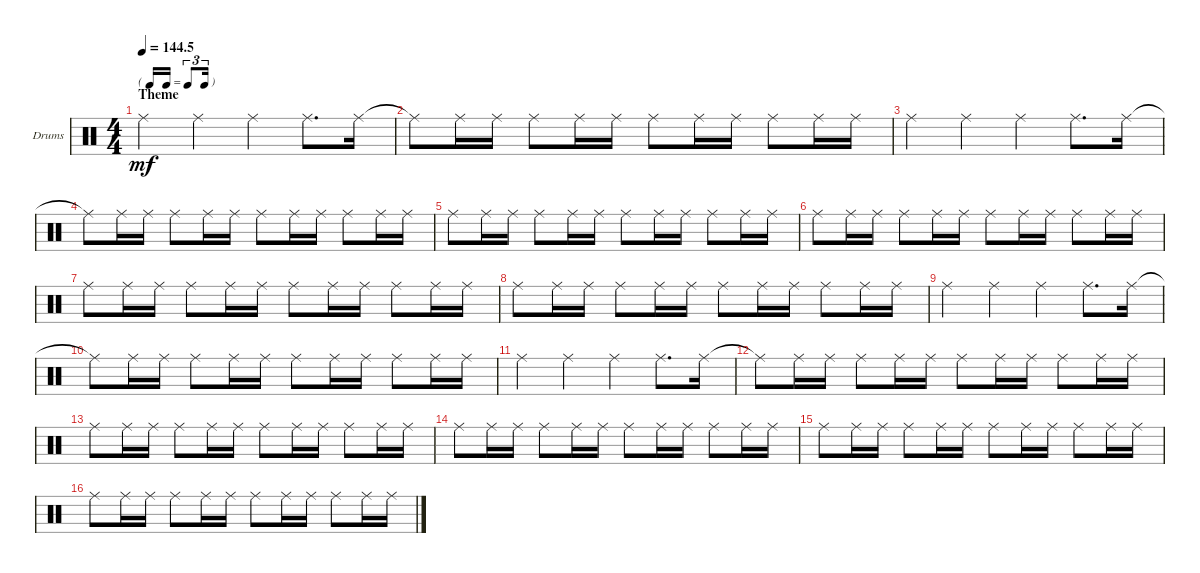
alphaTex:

\defaultSystemsLayout 4
\bracketExtendMode groupsimilarinstruments
\firstSystemTrackNameOrientation horizontal
\otherSystemsTrackNameOrientation horizontal
\track ("Drumkit" "Drums") {instrument percussion}
\staff {score}
\articulation defaults
\ts (4 4)
\tf triplet16th
\section ("" "Theme")
\tempo
144.5
\accidentals auto
\clef neutral
\ottava regular
\simile none
\scale
0.641509
\ks c "Ride (middle)".4{dy mf} "Ride (middle)".4 "Ride (middle)".4 "Ride (middle)".8{d} "Ride (middle)".16
|
\scale
0.358491 "Ride (middle)"{t}.8 "Ride (middle)".16 "Ride (middle)".16 "Ride (middle)".8 "Ride (middle)".16 "Ride (middle)".16 "Ride (middle)".8 "Ride (middle)".16 "Ride (middle)".16 "Ride (middle)".8 "Ride (middle)".16 "Ride (middle)".16 |
\scale
0.5 "Ride (middle)".4 "Ride (middle)".4 "Ride (middle)".4 "Ride (middle)".8{d} "Ride (middle)".16 |
\scale
0.5 "Ride (middle)"{t}.8 "Ride (middle)".16 "Ride (middle)".16 "Ride (middle)".8 "Ride (middle)".16 "Ride (middle)".16 "Ride (middle)".8 "Ride (middle)".16 "Ride (middle)".16 "Ride (middle)".8 "Ride (middle)".16 "Ride (middle)".16 |
\scale
0.5 "Ride (middle)".8 "Ride (middle)".16 "Ride (middle)".16 "Ride (middle)".8 "Ride (middle)".16 "Ride (middle)".16 "Ride (middle)".8 "Ride (middle)".16 "Ride (middle)".16 "Ride (middle)".8 "Ride (middle)".16 "Ride (middle)".16 |
\scale
0.5 "Ride (middle)".8 "Ride (middle)".16 "Ride (middle)".16 "Ride (middle)".8 "Ride (middle)".16 "Ride (middle)".16 "Ride (middle)".8 "Ride (middle)".16 "Ride (middle)".16 "Ride (middle)".8 "Ride (middle)".16 "Ride (middle)".16 |
\scale
0.5 "Ride (middle)".8 "Ride (middle)".16 "Ride (middle)".16 "Ride (middle)".8 "Ride (middle)".16 "Ride (middle)".16 "Ride (middle)".8 "Ride (middle)".16 "Ride (middle)".16 "Ride (middle)".8 "Ride (middle)".16 "Ride (middle)".16 |
\scale
0.5 "Ride (middle)".8 "Ride (middle)".16 "Ride (middle)".16 "Ride (middle)".8 "Ride (middle)".16 "Ride (middle)".16 "Ride (middle)".8 "Ride (middle)".16 "Ride (middle)".16 "Ride (middle)".8 "Ride (middle)".16 "Ride (middle)".16 |
\scale
0.5 "Ride (middle)".4 "Ride (middle)".4 "Ride (middle)".4 "Ride (middle)".8{d} "Ride (middle)".16 |
\scale
0.5 "Ride (middle)"{t}.8 "Ride (middle)".16 "Ride (middle)".16 "Ride (middle)".8 "Ride (middle)".16 "Ride (middle)".16 "Ride (middle)".8 "Ride (middle)".16 "Ride (middle)".16 "Ride (middle)".8 "Ride (middle)".16 "Ride (middle)".16 |
\scale
0.5 "Ride (middle)".4 "Ride (middle)".4 "Ride (middle)".4 "Ride (middle)".8{d} "Ride (middle)".16 |
\scale
0.5 "Ride (middle)"{t}.8 "Ride (middle)".16 "Ride (middle)".16 "Ride (middle)".8 "Ride (middle)".16 "Ride (middle)".16 "Ride (middle)".8 "Ride (middle)".16 "Ride (middle)".16 "Ride (middle)".8 "Ride (middle)".16 "Ride (middle)".16 |
\scale
0.5 "Ride (middle)".8 "Ride (middle)".16 "Ride (middle)".16 "Ride (middle)".8 "Ride (middle)".16 "Ride (middle)".16 "Ride (middle)".8 "Ride (middle)".16 "Ride (middle)".16 "Ride (middle)".8 "Ride (middle)".16 "Ride (middle)".16 |
\scale
0.5 "Ride (middle)".8 "Ride (middle)".16 "Ride (middle)".16 "Ride (middle)".8 "Ride (middle)".16 "Ride (middle)".16 "Ride (middle)".8 "Ride (middle)".16 "Ride (middle)".16 "Ride (middle)".8 "Ride (middle)".16 "Ride (middle)".16 |
\scale
0.5 "Ride (middle)".8 "Ride (middle)".16 "Ride (middle)".16 "Ride (middle)".8 "Ride (middle)".16 "Ride (middle)".16 "Ride (middle)".8 "Ride (middle)".16 "Ride (middle)".16 "Ride (middle)".8 "Ride (middle)".16 "Ride (middle)".16 |
\scale
0.5 "Ride (middle)".8 "Ride (middle)".16 "Ride (middle)".16 "Ride (middle)".8 "Ride (middle)".16 "Ride (middle)".16 "Ride (middle)".8 "Ride (middle)".16 "Ride (middle)".16 "Ride (middle)".8 "Ride (middle)".16 "Ride (middle)".16
